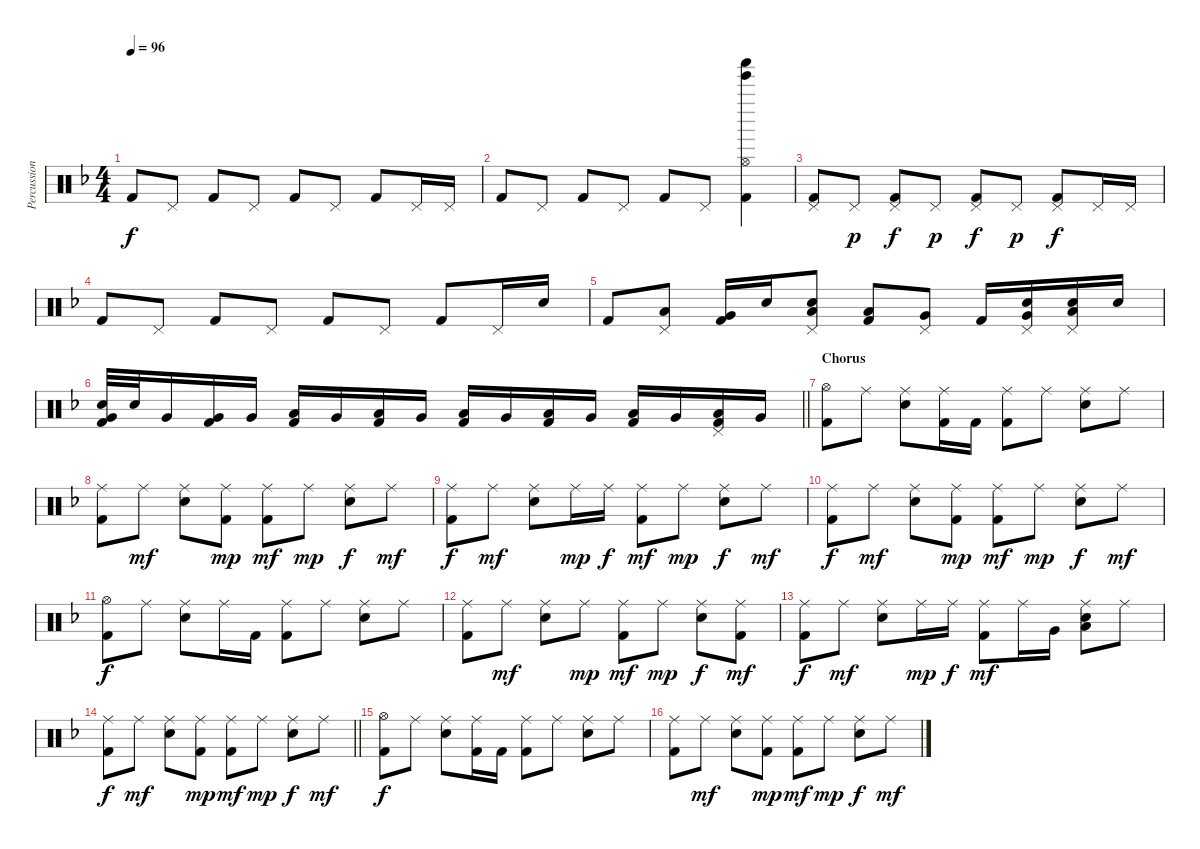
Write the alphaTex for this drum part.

\track ("Percussion" "Percussion") {instrument percussion}
\staff {score}
\articulation defaults
\ts (4 4)
\tempo 96
\clef neutral
\ks dminor "Kick (hit) 2".8{dy f} "Pedal Hi-Hat (hit)".8 "Kick (hit) 2".8 "Pedal Hi-Hat (hit)".8 "Kick (hit) 2".8 "Pedal Hi-Hat (hit)".8 "Kick (hit) 2".8 "Pedal Hi-Hat (hit)".16 "Pedal Hi-Hat (hit)".16
|
"Kick (hit) 2".8 "Pedal Hi-Hat (hit)".8 "Kick (hit) 2".8 "Pedal Hi-Hat (hit)".8 "Kick (hit) 2".8 "Pedal Hi-Hat (hit)".8 ("Hi-Hat (open)" "Tinkle Bell (hit)" "Shaker (hit)" "Kick (hit) 2").4 |
("Pedal Hi-Hat (hit)" "Kick (hit) 2").8 "Pedal Hi-Hat (hit)".8{dy p} ("Pedal Hi-Hat (hit)" "Kick (hit) 2").8{dy f} "Pedal Hi-Hat (hit)".8{dy p} ("Pedal Hi-Hat (hit)" "Kick (hit) 2").8{dy f} "Pedal Hi-Hat (hit)".8{dy p} ("Pedal Hi-Hat (hit)" "Kick (hit) 2").8{dy f} "Pedal Hi-Hat (hit)".16 "Pedal Hi-Hat (hit)".16 |
"Kick (hit) 2".8 "Pedal Hi-Hat (hit)".8 "Kick (hit) 2".8 "Pedal Hi-Hat (hit)".8 "Kick (hit) 2".8 "Pedal Hi-Hat (hit)".8 "Kick (hit) 2".8 "Pedal Hi-Hat (hit)".16 "Electric Snare (hit)".16 |
"Kick (hit) 2".8 ("Pedal Hi-Hat (hit)" "Low Tom (hit)").8 ("Very Low Tom (hit)" "Kick (hit) 2").16 "Electric Snare (hit)".16 ("Pedal Hi-Hat (hit)" "Electric Snare (hit)" "Low Floor Tom (hit)").8 ("Low Tom (hit)" "Kick (hit) 2").8 ("Pedal Hi-Hat (hit)" "Very Low Tom (hit)").8 "Kick (hit) 2".16 ("Pedal Hi-Hat (hit)" "Electric Snare (hit)" "Very Low Tom (hit)").16 ("Pedal Hi-Hat (hit)" "Electric Snare (hit)" "Low Floor Tom (hit)").16 "Electric Snare (hit)".16 |
\barLineRight lightlight
("Electric Snare (hit)" "Very Low Tom (hit)" "Kick (hit) 2").32 "Electric Snare (hit)".32 "Very Low Tom (hit)".16 ("Very Low Tom (hit)" "Kick (hit) 2").16 "Very Low Tom (hit)".16 ("Low Floor Tom (hit)" "Kick (hit) 2").16 "Very Low Tom (hit)".16 ("Low Floor Tom (hit)" "Kick (hit) 2").16 "Very Low Tom (hit)".16 ("Low Floor Tom (hit)" "Kick (hit) 2").16 "Very Low Tom (hit)".16 ("Low Floor Tom (hit)" "Kick (hit) 2").16 "Very Low Tom (hit)".16 ("Low Floor Tom (hit)" "Kick (hit) 2").16 "Very Low Tom (hit)".16 ("Pedal Hi-Hat (hit)" "Low Floor Tom (hit)" "Kick (hit) 2").16 "Very Low Tom (hit)".16 |
\section ("" "Chorus")
("Hi-Hat (open)" "Kick (hit) 2").8 "Ride (middle)".8 ("Ride (middle)" "Electric Snare (hit)").8 ("Ride (middle)" "Kick (hit) 2").16 "Kick (hit) 2".16 ("Ride (middle)" "Kick (hit) 2").8 "Ride (middle)".8 ("Ride (middle)" "Electric Snare (hit)").8 "Ride (middle)".8 |
("Ride (middle)" "Kick (hit) 2").8 "Ride (middle)".8{dy mf} ("Ride (middle)" "Electric Snare (hit)").8 ("Ride (middle)" "Kick (hit) 2").8{dy mp} ("Ride (middle)" "Kick (hit) 2").8{dy mf} "Ride (middle)".8{dy mp} ("Ride (middle)" "Electric Snare (hit)").8{dy f} "Ride (middle)".8{dy mf} |
("Ride (middle)" "Kick (hit) 2").8{dy f} "Ride (middle)".8{dy mf} ("Ride (middle)" "Electric Snare (hit)").8 "Ride (middle)".16{dy mp} "Ride (middle)".16{dy f} ("Ride (middle)" "Kick (hit) 2").8{dy mf} "Ride (middle)".8{dy mp} ("Ride (middle)" "Electric Snare (hit)").8{dy f} "Ride (middle)".8{dy mf} |
("Ride (middle)" "Kick (hit) 2").8{dy f} "Ride (middle)".8{dy mf} ("Ride (middle)" "Electric Snare (hit)").8 ("Ride (middle)" "Kick (hit) 2").8{dy mp} ("Ride (middle)" "Kick (hit) 2").8{dy mf} "Ride (middle)".8{dy mp} ("Ride (middle)" "Electric Snare (hit)").8{dy f} "Ride (middle)".8{dy mf} |
("Hi-Hat (open)" "Kick (hit) 2").8{dy f} "Ride (middle)".8 ("Ride (middle)" "Electric Snare (hit)").8 "Ride (middle)".16 "Kick (hit) 2".16 ("Ride (middle)" "Kick (hit) 2").8 "Ride (middle)".8 ("Ride (middle)" "Electric Snare (hit)").8 "Ride (middle)".8 |
("Ride (middle)" "Kick (hit) 2").8 "Ride (middle)".8{dy mf} ("Ride (middle)" "Electric Snare (hit)").8 "Ride (middle)".8{dy mp} ("Ride (middle)" "Kick (hit) 2").8{dy mf} "Ride (middle)".8{dy mp} ("Ride (middle)" "Electric Snare (hit)").8{dy f} ("Ride (middle)" "Kick (hit) 2").8{dy mf} |
("Ride (middle)" "Kick (hit) 2").8{dy f} "Ride (middle)".8{dy mf} ("Ride (middle)" "Electric Snare (hit)").8 "Ride (middle)".16{dy mp} "Ride (middle)".16{dy f} ("Ride (middle)" "Kick (hit) 2").8{dy mf} "Ride (middle)".16 "Very Low Tom (hit)".16 ("Ride (middle)" "Electric Snare (hit)" "Low Floor Tom (hit)").8 "Ride (middle)".8 |
\barLineRight lightlight
("Ride (middle)" "Kick (hit) 2").8{dy f} "Ride (middle)".8{dy mf} ("Ride (middle)" "Electric Snare (hit)").8 ("Ride (middle)" "Kick (hit) 2").8{dy mp} ("Ride (middle)" "Kick (hit) 2").8{dy mf} "Ride (middle)".8{dy mp} ("Ride (middle)" "Electric Snare (hit)").8{dy f} "Ride (middle)".8{dy mf} |
("Hi-Hat (open)" "Kick (hit) 2").8{dy f} "Ride (middle)".8 ("Ride (middle)" "Electric Snare (hit)").8 ("Ride (middle)" "Kick (hit) 2").16 "Kick (hit) 2".16 ("Ride (middle)" "Kick (hit) 2").8 "Ride (middle)".8 ("Ride (middle)" "Electric Snare (hit)").8 "Ride (middle)".8 |
("Ride (middle)" "Kick (hit) 2").8 "Ride (middle)".8{dy mf} ("Ride (middle)" "Electric Snare (hit)").8 ("Ride (middle)" "Kick (hit) 2").8{dy mp} ("Ride (middle)" "Kick (hit) 2").8{dy mf} "Ride (middle)".8{dy mp} ("Ride (middle)" "Electric Snare (hit)").8{dy f} "Ride (middle)".8{dy mf}
